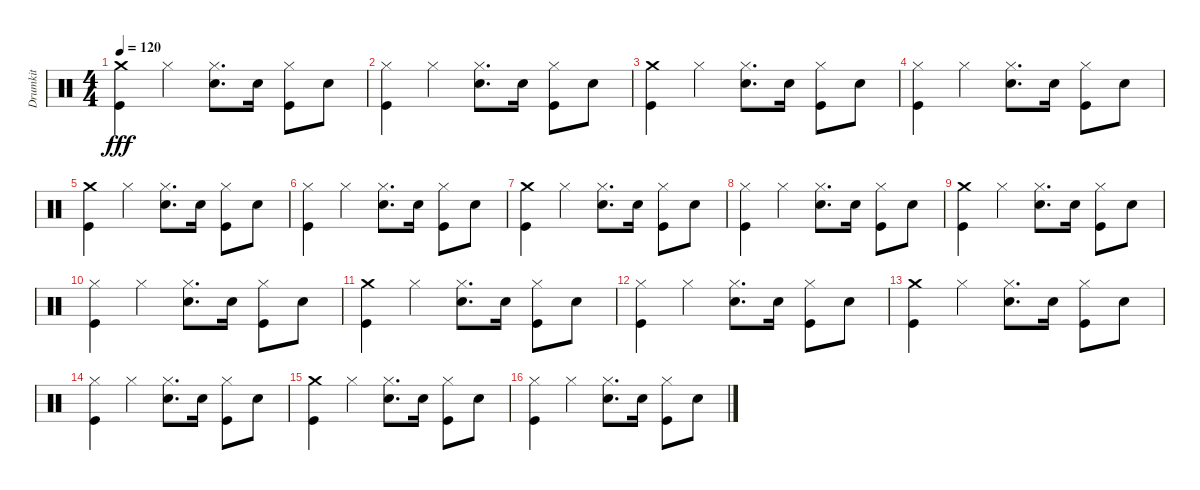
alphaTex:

\track ("Drumkit" "Drumkit") {instrument percussion}
\staff {score}
\articulation defaults
\ts (4 4)
\tempo 120
\clef neutral
\ks c
("Kick (hit)" "Crash medium (hit)").4{dy fff} "Hi-Hat (closed)".4 ("Snare (hit) 2" "Hi-Hat (closed)").8{d} "Snare (hit) 2".16 ("Hi-Hat (closed)" "Kick (hit)").8 "Snare (hit) 2".8 |
("Kick (hit)" "Hi-Hat (closed)").4 "Hi-Hat (closed)".4 ("Snare (hit) 2" "Hi-Hat (closed)").8{d} "Snare (hit) 2".16 ("Hi-Hat (closed)" "Kick (hit)").8 "Snare (hit) 2".8 |
("Kick (hit)" "Crash medium (hit)").4 "Hi-Hat (closed)".4 ("Snare (hit) 2" "Hi-Hat (closed)").8{d} "Snare (hit) 2".16 ("Hi-Hat (closed)" "Kick (hit)").8 "Snare (hit) 2".8 |
("Kick (hit)" "Hi-Hat (closed)").4 "Hi-Hat (closed)".4 ("Snare (hit) 2" "Hi-Hat (closed)").8{d} "Snare (hit) 2".16 ("Hi-Hat (closed)" "Kick (hit)").8 "Snare (hit) 2".8 |
("Kick (hit)" "Crash medium (hit)").4 "Hi-Hat (closed)".4 ("Snare (hit) 2" "Hi-Hat (closed)").8{d} "Snare (hit) 2".16 ("Hi-Hat (closed)" "Kick (hit)").8 "Snare (hit) 2".8 |
("Kick (hit)" "Hi-Hat (closed)").4 "Hi-Hat (closed)".4 ("Snare (hit) 2" "Hi-Hat (closed)").8{d} "Snare (hit) 2".16 ("Hi-Hat (closed)" "Kick (hit)").8 "Snare (hit) 2".8 |
("Kick (hit)" "Crash medium (hit)").4 "Hi-Hat (closed)".4 ("Snare (hit) 2" "Hi-Hat (closed)").8{d} "Snare (hit) 2".16 ("Hi-Hat (closed)" "Kick (hit)").8 "Snare (hit) 2".8 |
("Kick (hit)" "Hi-Hat (closed)").4 "Hi-Hat (closed)".4 ("Snare (hit) 2" "Hi-Hat (closed)").8{d} "Snare (hit) 2".16 ("Hi-Hat (closed)" "Kick (hit)").8 "Snare (hit) 2".8 |
("Kick (hit)" "Crash medium (hit)").4 "Hi-Hat (closed)".4 ("Snare (hit) 2" "Hi-Hat (closed)").8{d} "Snare (hit) 2".16 ("Hi-Hat (closed)" "Kick (hit)").8 "Snare (hit) 2".8 |
("Kick (hit)" "Hi-Hat (closed)").4 "Hi-Hat (closed)".4 ("Snare (hit) 2" "Hi-Hat (closed)").8{d} "Snare (hit) 2".16 ("Hi-Hat (closed)" "Kick (hit)").8 "Snare (hit) 2".8 |
("Kick (hit)" "Crash medium (hit)").4 "Hi-Hat (closed)".4 ("Snare (hit) 2" "Hi-Hat (closed)").8{d} "Snare (hit) 2".16 ("Hi-Hat (closed)" "Kick (hit)").8 "Snare (hit) 2".8 |
("Kick (hit)" "Hi-Hat (closed)").4 "Hi-Hat (closed)".4 ("Snare (hit) 2" "Hi-Hat (closed)").8{d} "Snare (hit) 2".16 ("Hi-Hat (closed)" "Kick (hit)").8 "Snare (hit) 2".8 |
("Kick (hit)" "Crash medium (hit)").4 "Hi-Hat (closed)".4 ("Snare (hit) 2" "Hi-Hat (closed)").8{d} "Snare (hit) 2".16 ("Hi-Hat (closed)" "Kick (hit)").8 "Snare (hit) 2".8 |
("Kick (hit)" "Hi-Hat (closed)").4 "Hi-Hat (closed)".4 ("Snare (hit) 2" "Hi-Hat (closed)").8{d} "Snare (hit) 2".16 ("Hi-Hat (closed)" "Kick (hit)").8 "Snare (hit) 2".8 |
("Kick (hit)" "Crash medium (hit)").4 "Hi-Hat (closed)".4 ("Snare (hit) 2" "Hi-Hat (closed)").8{d} "Snare (hit) 2".16 ("Hi-Hat (closed)" "Kick (hit)").8 "Snare (hit) 2".8 |
("Kick (hit)" "Hi-Hat (closed)").4 "Hi-Hat (closed)".4 ("Snare (hit) 2" "Hi-Hat (closed)").8{d} "Snare (hit) 2".16 ("Hi-Hat (closed)" "Kick (hit)").8 "Snare (hit) 2".8
